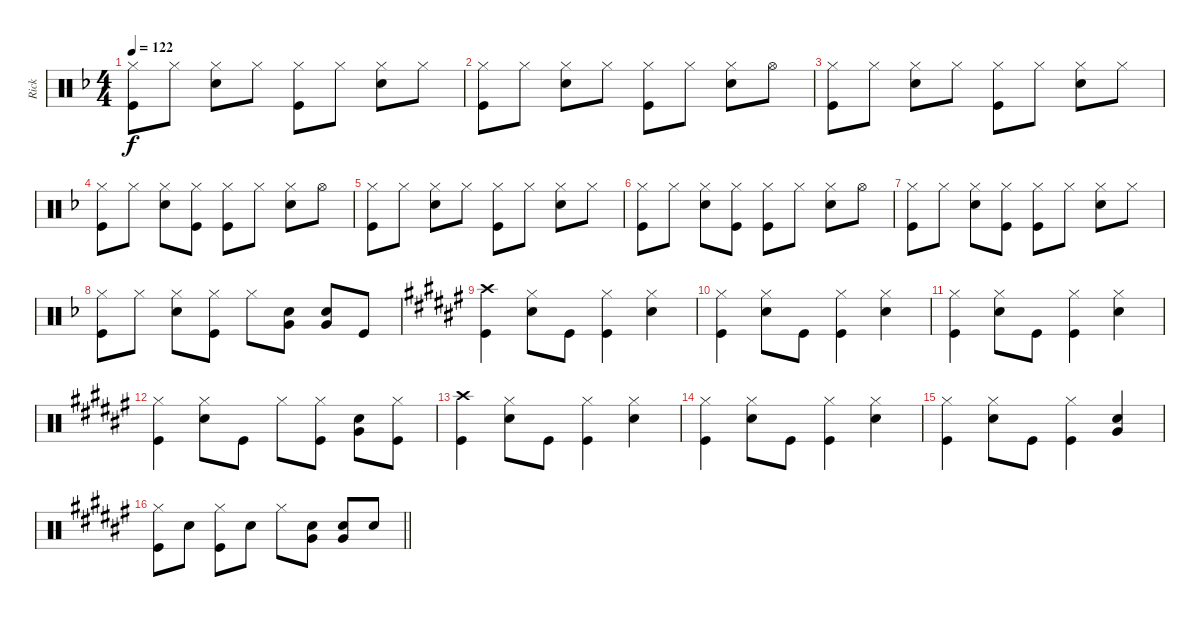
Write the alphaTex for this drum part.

\track ("Rick" "Rick") {instrument percussion}
\staff {score}
\articulation defaults
\ts (4 4)
\tempo 122
\clef neutral
\ks f
("Hi-Hat (closed)" "Kick (hit)").8{dy f} "Hi-Hat (closed)".8 ("Hi-Hat (closed)" "Snare (hit) 2").8 "Hi-Hat (closed)".8 ("Hi-Hat (closed)" "Kick (hit)").8 "Hi-Hat (closed)".8 ("Hi-Hat (closed)" "Snare (hit) 2").8 "Hi-Hat (closed)".8 |
("Hi-Hat (closed)" "Kick (hit)").8 "Hi-Hat (closed)".8 ("Hi-Hat (closed)" "Snare (hit) 2").8 "Hi-Hat (closed)".8 ("Hi-Hat (closed)" "Kick (hit)").8 "Hi-Hat (closed)".8 ("Hi-Hat (closed)" "Snare (hit) 2").8 "Hi-Hat (open)".8 |
("Hi-Hat (closed)" "Kick (hit)").8 "Hi-Hat (closed)".8 ("Hi-Hat (closed)" "Snare (hit) 2").8 "Hi-Hat (closed)".8 ("Hi-Hat (closed)" "Kick (hit)").8 "Hi-Hat (closed)".8 ("Hi-Hat (closed)" "Snare (hit) 2").8 "Hi-Hat (closed)".8 |
("Hi-Hat (closed)" "Kick (hit)").8 "Hi-Hat (closed)".8 ("Hi-Hat (closed)" "Snare (hit) 2").8 ("Hi-Hat (closed)" "Kick (hit)").8 ("Hi-Hat (closed)" "Kick (hit)").8 "Hi-Hat (closed)".8 ("Hi-Hat (closed)" "Snare (hit) 2").8 "Hi-Hat (open)".8 |
("Hi-Hat (closed)" "Kick (hit)").8 "Hi-Hat (closed)".8 ("Hi-Hat (closed)" "Snare (hit) 2").8 "Hi-Hat (closed)".8 ("Hi-Hat (closed)" "Kick (hit)").8 "Hi-Hat (closed)".8 ("Hi-Hat (closed)" "Snare (hit) 2").8 "Hi-Hat (closed)".8 |
("Hi-Hat (closed)" "Kick (hit)").8 "Hi-Hat (closed)".8 ("Hi-Hat (closed)" "Snare (hit) 2").8 ("Hi-Hat (closed)" "Kick (hit)").8 ("Hi-Hat (closed)" "Kick (hit)").8 "Hi-Hat (closed)".8 ("Hi-Hat (closed)" "Snare (hit) 2").8 "Hi-Hat (open)".8 |
("Hi-Hat (closed)" "Kick (hit)").8 "Hi-Hat (closed)".8 ("Hi-Hat (closed)" "Snare (hit) 2").8 ("Hi-Hat (closed)" "Kick (hit)").8 ("Hi-Hat (closed)" "Kick (hit)").8 "Hi-Hat (closed)".8 ("Hi-Hat (closed)" "Snare (hit) 2").8 "Hi-Hat (closed)".8 |
("Hi-Hat (closed)" "Kick (hit)").8 "Hi-Hat (closed)".8 ("Hi-Hat (closed)" "Snare (hit) 2").8 ("Hi-Hat (closed)" "Kick (hit)").8 "Hi-Hat (closed)".8 ("Snare (hit) 2" "Very Low Tom (hit)").8 ("Snare (hit) 2" "Very Low Tom (hit)").8 "Kick (hit)".8 |
\ks f#
("Crash high (hit)" "Kick (hit)").4 ("Hi-Hat (closed)" "Snare (hit) 2").8 "Kick (hit)".8 ("Hi-Hat (closed)" "Kick (hit)").4 ("Hi-Hat (closed)" "Snare (hit) 2").4 |
("Hi-Hat (closed)" "Kick (hit)").4 ("Hi-Hat (closed)" "Snare (hit) 2").8 "Kick (hit)".8 ("Hi-Hat (closed)" "Kick (hit)").4 ("Hi-Hat (closed)" "Snare (hit) 2").4 |
("Hi-Hat (closed)" "Kick (hit)").4 ("Hi-Hat (closed)" "Snare (hit) 2").8 "Kick (hit)".8 ("Hi-Hat (closed)" "Kick (hit)").4 ("Hi-Hat (closed)" "Snare (hit) 2").4 |
("Hi-Hat (closed)" "Kick (hit)").4 ("Hi-Hat (closed)" "Snare (hit) 2").8 "Kick (hit)".8 "Hi-Hat (closed)".8 ("Hi-Hat (closed)" "Kick (hit)").8 ("Snare (hit) 2" "Very Low Tom (hit)").8 ("Hi-Hat (closed)" "Kick (hit)").8 |
("Crash high (hit)" "Kick (hit)").4 ("Hi-Hat (closed)" "Snare (hit) 2").8 "Kick (hit)".8 ("Hi-Hat (closed)" "Kick (hit)").4 ("Hi-Hat (closed)" "Snare (hit) 2").4 |
("Hi-Hat (closed)" "Kick (hit)").4 ("Hi-Hat (closed)" "Snare (hit) 2").8 "Kick (hit)".8 ("Hi-Hat (closed)" "Kick (hit)").4 ("Hi-Hat (closed)" "Snare (hit) 2").4 |
("Hi-Hat (closed)" "Kick (hit)").4 ("Hi-Hat (closed)" "Snare (hit) 2").8 "Kick (hit)".8 ("Hi-Hat (closed)" "Kick (hit)").4 ("Snare (hit) 2" "Very Low Tom (hit)").4 |
\barLineRight lightlight
("Hi-Hat (closed)" "Kick (hit)").8 "Snare (hit) 2".8 ("Hi-Hat (closed)" "Kick (hit)").8 "Snare (hit) 2".8 "Hi-Hat (closed)".8 ("Snare (hit) 2" "Very Low Tom (hit)").8 ("Snare (hit) 2" "Very Low Tom (hit)").8 "Snare (hit) 2".8
